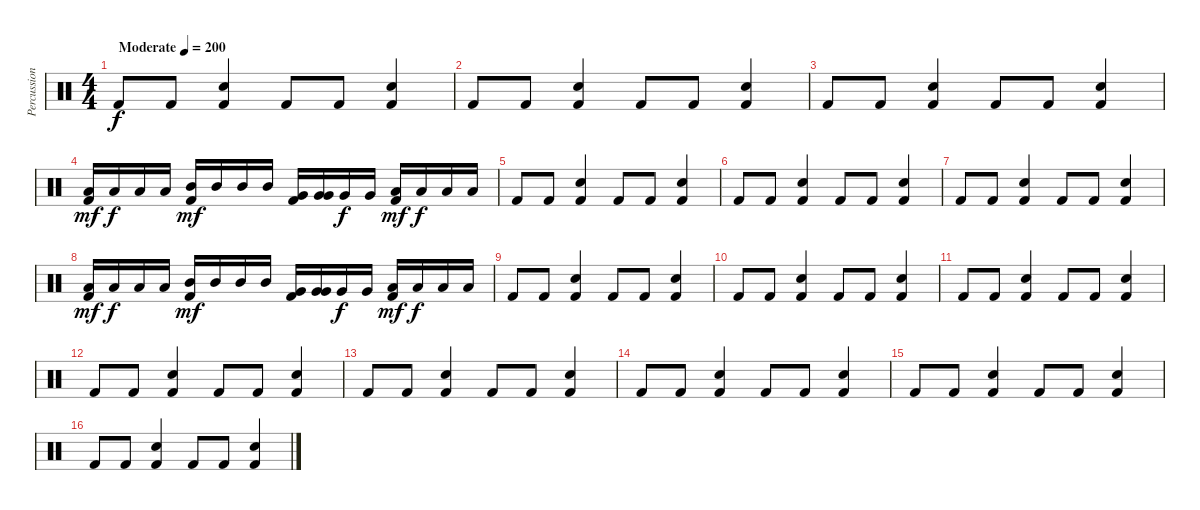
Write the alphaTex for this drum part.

\track ("Percussioni" "Percussion") {instrument percussion}
\staff {score}
\articulation defaults
\ts (4 4)
\tempo (200 "Moderate")
\clef neutral
\ks c "Kick (hit) 2".8{dy f} "Kick (hit) 2".8
("Snare (hit) 2" "Kick (hit) 2").4 "Kick (hit) 2".8 "Kick (hit) 2".8 ("Snare (hit) 2" "Kick (hit) 2").4 |
"Kick (hit) 2".8 "Kick (hit) 2".8 ("Snare (hit) 2" "Kick (hit) 2").4 "Kick (hit) 2".8 "Kick (hit) 2".8 ("Snare (hit) 2" "Kick (hit) 2").4 |
"Kick (hit) 2".8 "Kick (hit) 2".8 ("Snare (hit) 2" "Kick (hit) 2").4 "Kick (hit) 2".8 "Kick (hit) 2".8 ("Snare (hit) 2" "Kick (hit) 2").4 |
("Low Tom (hit)" "Kick (hit) 2").16{dy mf} "Low Tom (hit)".16{dy f} "Low Tom (hit)".16 "Low Tom (hit)".16 ("Mid Tom (hit)" "Kick (hit) 2").16{dy mf} "Mid Tom (hit)".16 "Mid Tom (hit)".16 "Mid Tom (hit)".16 ("Very Low Tom (hit)" "Kick (hit) 2").16 ("Very Low Tom (hit)" "Very Low Tom (hit)").16 "Very Low Tom (hit)".16{dy f} "Very Low Tom (hit)".16 ("Low Floor Tom (hit)" "Kick (hit) 2").16{dy mf} "Low Floor Tom (hit)".16{dy f} "Low Floor Tom (hit)".16 "Low Floor Tom (hit)".16 |
"Kick (hit) 2".8 "Kick (hit) 2".8 ("Snare (hit) 2" "Kick (hit) 2").4 "Kick (hit) 2".8 "Kick (hit) 2".8 ("Snare (hit) 2" "Kick (hit) 2").4 |
"Kick (hit) 2".8 "Kick (hit) 2".8 ("Snare (hit) 2" "Kick (hit) 2").4 "Kick (hit) 2".8 "Kick (hit) 2".8 ("Snare (hit) 2" "Kick (hit) 2").4 |
"Kick (hit) 2".8 "Kick (hit) 2".8 ("Snare (hit) 2" "Kick (hit) 2").4 "Kick (hit) 2".8 "Kick (hit) 2".8 ("Snare (hit) 2" "Kick (hit) 2").4 |
("Low Tom (hit)" "Kick (hit) 2").16{dy mf} "Low Tom (hit)".16{dy f} "Low Tom (hit)".16 "Low Tom (hit)".16 ("Mid Tom (hit)" "Kick (hit) 2").16{dy mf} "Mid Tom (hit)".16 "Mid Tom (hit)".16 "Mid Tom (hit)".16 ("Very Low Tom (hit)" "Kick (hit) 2").16 ("Very Low Tom (hit)" "Very Low Tom (hit)").16 "Very Low Tom (hit)".16{dy f} "Very Low Tom (hit)".16 ("Low Floor Tom (hit)" "Kick (hit) 2").16{dy mf} "Low Floor Tom (hit)".16{dy f} "Low Floor Tom (hit)".16 "Low Floor Tom (hit)".16 |
"Kick (hit) 2".8 "Kick (hit) 2".8 ("Snare (hit) 2" "Kick (hit) 2").4 "Kick (hit) 2".8 "Kick (hit) 2".8 ("Snare (hit) 2" "Kick (hit) 2").4 |
"Kick (hit) 2".8 "Kick (hit) 2".8 ("Snare (hit) 2" "Kick (hit) 2").4 "Kick (hit) 2".8 "Kick (hit) 2".8 ("Snare (hit) 2" "Kick (hit) 2").4 |
"Kick (hit) 2".8 "Kick (hit) 2".8 ("Snare (hit) 2" "Kick (hit) 2").4 "Kick (hit) 2".8 "Kick (hit) 2".8 ("Snare (hit) 2" "Kick (hit) 2").4 |
"Kick (hit) 2".8 "Kick (hit) 2".8 ("Snare (hit) 2" "Kick (hit) 2").4 "Kick (hit) 2".8 "Kick (hit) 2".8 ("Snare (hit) 2" "Kick (hit) 2").4 |
"Kick (hit) 2".8 "Kick (hit) 2".8 ("Snare (hit) 2" "Kick (hit) 2").4 "Kick (hit) 2".8 "Kick (hit) 2".8 ("Snare (hit) 2" "Kick (hit) 2").4 |
"Kick (hit) 2".8 "Kick (hit) 2".8 ("Snare (hit) 2" "Kick (hit) 2").4 "Kick (hit) 2".8 "Kick (hit) 2".8 ("Snare (hit) 2" "Kick (hit) 2").4 |
"Kick (hit) 2".8 "Kick (hit) 2".8 ("Snare (hit) 2" "Kick (hit) 2").4 "Kick (hit) 2".8 "Kick (hit) 2".8 ("Snare (hit) 2" "Kick (hit) 2").4 |
"Kick (hit) 2".8 "Kick (hit) 2".8 ("Snare (hit) 2" "Kick (hit) 2").4 "Kick (hit) 2".8 "Kick (hit) 2".8 ("Snare (hit) 2" "Kick (hit) 2").4
